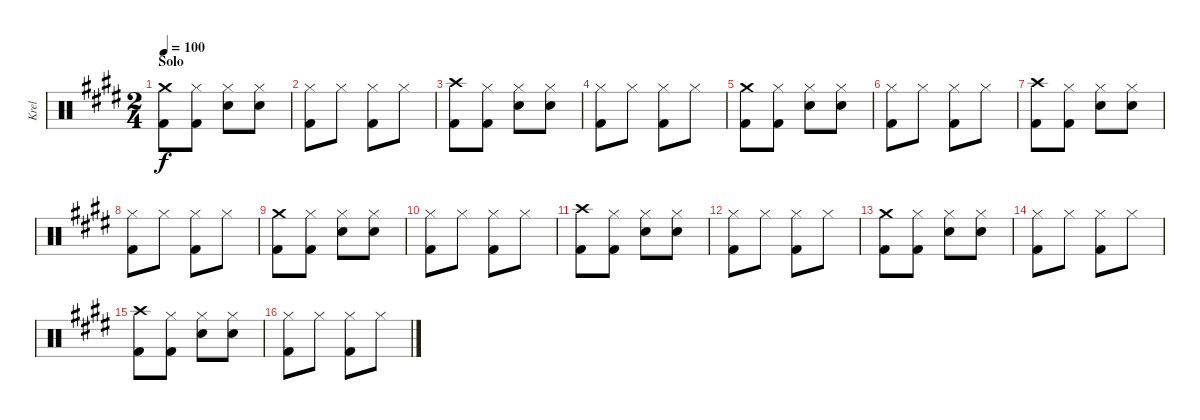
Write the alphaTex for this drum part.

\track ("Krel" "Krel") {instrument percussion}
\staff {score}
\articulation defaults
\ts (2 4)
\section ("" "Solo")
\tempo 100
\clef neutral
\ks e
("Crash medium (hit)" "Kick (hit) 2").8{dy f} ("Hi-Hat (closed)" "Kick (hit) 2").8 ("Hi-Hat (closed)" "Snare (hit) 2").8 ("Hi-Hat (closed)" "Snare (hit) 2").8 |
("Hi-Hat (closed)" "Kick (hit) 2").8 "Hi-Hat (closed)".8 ("Hi-Hat (closed)" "Kick (hit) 2").8 "Hi-Hat (closed)".8 |
("Crash high (hit)" "Kick (hit) 2").8 ("Hi-Hat (closed)" "Kick (hit) 2").8 ("Hi-Hat (closed)" "Snare (hit) 2").8 ("Hi-Hat (closed)" "Snare (hit) 2").8 |
("Hi-Hat (closed)" "Kick (hit) 2").8 "Hi-Hat (closed)".8 ("Hi-Hat (closed)" "Kick (hit) 2").8 "Hi-Hat (closed)".8 |
("Crash medium (hit)" "Kick (hit) 2").8 ("Hi-Hat (closed)" "Kick (hit) 2").8 ("Hi-Hat (closed)" "Snare (hit) 2").8 ("Hi-Hat (closed)" "Snare (hit) 2").8 |
("Hi-Hat (closed)" "Kick (hit) 2").8 "Hi-Hat (closed)".8 ("Hi-Hat (closed)" "Kick (hit) 2").8 "Hi-Hat (closed)".8 |
("Crash high (hit)" "Kick (hit) 2").8 ("Hi-Hat (closed)" "Kick (hit) 2").8 ("Hi-Hat (closed)" "Snare (hit) 2").8 ("Hi-Hat (closed)" "Snare (hit) 2").8 |
("Hi-Hat (closed)" "Kick (hit) 2").8 "Hi-Hat (closed)".8 ("Hi-Hat (closed)" "Kick (hit) 2").8 "Hi-Hat (closed)".8 |
("Crash medium (hit)" "Kick (hit) 2").8 ("Hi-Hat (closed)" "Kick (hit) 2").8 ("Hi-Hat (closed)" "Snare (hit) 2").8 ("Hi-Hat (closed)" "Snare (hit) 2").8 |
("Hi-Hat (closed)" "Kick (hit) 2").8 "Hi-Hat (closed)".8 ("Hi-Hat (closed)" "Kick (hit) 2").8 "Hi-Hat (closed)".8 |
("Crash high (hit)" "Kick (hit) 2").8 ("Hi-Hat (closed)" "Kick (hit) 2").8 ("Hi-Hat (closed)" "Snare (hit) 2").8 ("Hi-Hat (closed)" "Snare (hit) 2").8 |
("Hi-Hat (closed)" "Kick (hit) 2").8 "Hi-Hat (closed)".8 ("Hi-Hat (closed)" "Kick (hit) 2").8 "Hi-Hat (closed)".8 |
("Crash medium (hit)" "Kick (hit) 2").8 ("Hi-Hat (closed)" "Kick (hit) 2").8 ("Hi-Hat (closed)" "Snare (hit) 2").8 ("Hi-Hat (closed)" "Snare (hit) 2").8 |
("Hi-Hat (closed)" "Kick (hit) 2").8 "Hi-Hat (closed)".8 ("Hi-Hat (closed)" "Kick (hit) 2").8 "Hi-Hat (closed)".8 |
("Crash high (hit)" "Kick (hit) 2").8 ("Hi-Hat (closed)" "Kick (hit) 2").8 ("Hi-Hat (closed)" "Snare (hit) 2").8 ("Hi-Hat (closed)" "Snare (hit) 2").8 |
("Hi-Hat (closed)" "Kick (hit) 2").8 "Hi-Hat (closed)".8 ("Hi-Hat (closed)" "Kick (hit) 2").8 "Hi-Hat (closed)".8
